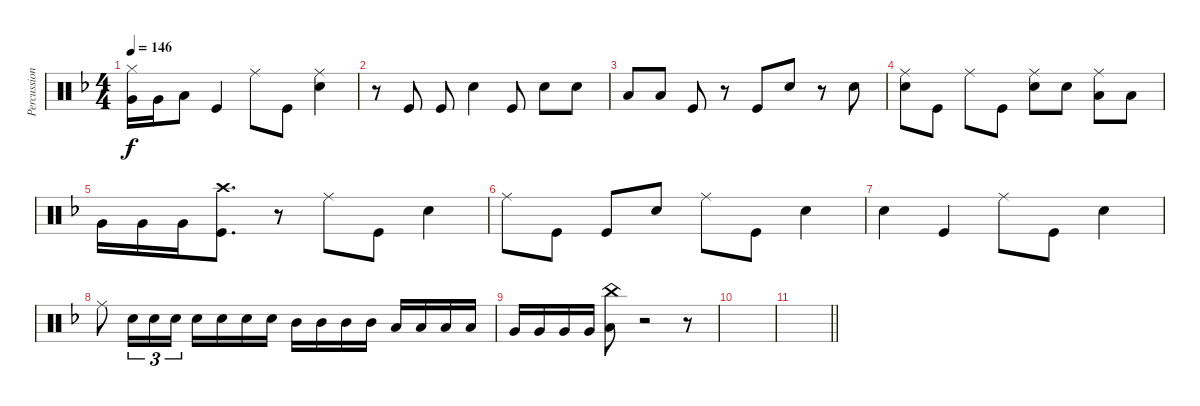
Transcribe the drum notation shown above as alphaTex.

\track ("Percussioni" "Percussion") {instrument percussion}
\staff {score}
\articulation defaults
\ts (4 4)
\tempo 146
\clef neutral
\ks dminor
("Very Low Tom (hit)" "Hi-Hat (closed)").16{dy f} "Very Low Tom (hit)".16 "Low Floor Tom (hit)".8 "Kick (hit)".4 "Ride (middle)".8 "Kick (hit)".8 ("Snare (hit) 2" "Ride (middle)").4 |
r.8 "Kick (hit)".8 "Kick (hit)".8 "Snare (hit) 2".4 "Kick (hit)".8 "Snare (hit) 2".8 "Snare (hit) 2".8 |
"Low Floor Tom (hit)".8 "Low Floor Tom (hit)".8 "Kick (hit)".8 r.8 "Kick (hit)".8 "Snare (hit) 2".8 r.8 "Snare (hit) 2".8 |
("Ride (middle)" "Snare (hit) 2").8 "Kick (hit)".8 "Ride (middle)".8 "Kick (hit)".8 ("Ride (middle)" "Snare (hit) 2").8 "Snare (hit) 2".8 ("Ride (middle)" "Low Floor Tom (hit)").8 "Low Floor Tom (hit)".8 |
"Very Low Tom (hit)".16 "Very Low Tom (hit)".16 "Very Low Tom (hit)".16 ("Kick (hit)" "Crash high (hit)").8{d} r.8 "Ride (middle)".8 "Kick (hit)".8 "Snare (hit) 2".4 |
"Ride (middle)".8 "Kick (hit)".8 "Kick (hit)".8 "Snare (hit) 2".8 "Ride (middle)".8 "Kick (hit)".8 "Snare (hit) 2".4 |
"Snare (hit) 2".4 "Kick (hit)".4 "Ride (middle)".8 "Kick (hit)".8 "Snare (hit) 2".4 |
"Ride (middle)".8 "Snare (hit) 2".16{tu (3 2)} "Snare (hit) 2".16{tu (3 2)} "Snare (hit) 2".16{tu (3 2)} "Snare (hit) 2".16 "Snare (hit) 2".16 "Snare (hit) 2".16 "Snare (hit) 2".16 "Mid Tom (hit)".16 "Mid Tom (hit)".16 "Mid Tom (hit)".16 "Mid Tom (hit)".16 "Low Tom (hit)".16 "Low Tom (hit)".16 "Low Tom (hit)".16 "Low Tom (hit)".16 |
"Very Low Tom (hit)".16 "Very Low Tom (hit)".16 "Very Low Tom (hit)".16 "Very Low Tom (hit)".16 ("China (hit)" "Low Floor Tom (hit)").8 r.2 r.8 |
|
\barLineRight lightlight
